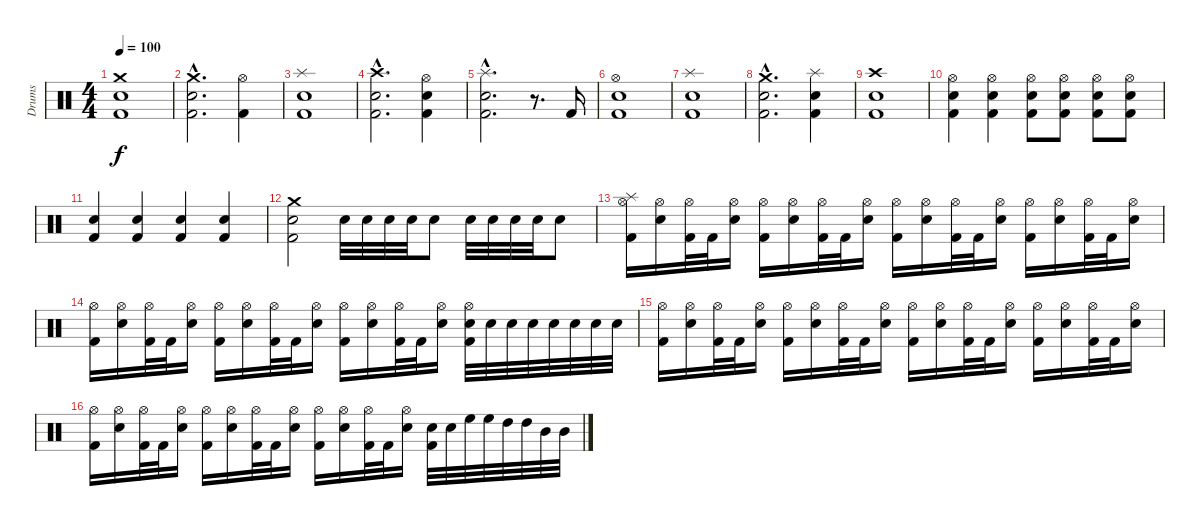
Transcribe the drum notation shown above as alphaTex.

\track ("Drums" "Drums") {instrument percussion}
\staff {score}
\articulation defaults
\ts (4 4)
\tempo 100
\clef neutral
\ks c
("Kick (hit) 2" "Electric Snare (hit)" "Crash medium (hit)").1{dy f} |
("Kick (hit) 2"{hac} "Electric Snare (hit)"{hac} "Crash medium (hit)"{hac}).2{d} ("Kick (hit) 2" "Hi-Hat (open)").4 |
("Kick (hit) 2" "Electric Snare (hit)" "Splash (hit)").1 |
("Kick (hit) 2"{hac} "Electric Snare (hit)"{hac} "Crash high (hit)"{hac}).2{d} ("Kick (hit) 2" "Electric Snare (hit)" "Hi-Hat (open)").4 |
("Kick (hit) 2"{hac} "Electric Snare (hit)"{hac} "Splash (hit)"{hac}).2{d} r.8{d} "Kick (hit) 2".16 |
("Kick (hit) 2" "Electric Snare (hit)" "Hi-Hat (open)").1 |
("Kick (hit) 2" "Electric Snare (hit)" "Splash (hit)").1 |
("Kick (hit) 2"{hac} "Electric Snare (hit)"{hac} "Crash medium (hit)"{hac}).2{d} ("Kick (hit) 2" "Electric Snare (hit)" "Splash (hit)").4 |
("Kick (hit) 2" "Electric Snare (hit)" "Crash high (hit)").1 |
("Kick (hit) 2" "Electric Snare (hit)" "Hi-Hat (open)").4 ("Kick (hit) 2" "Electric Snare (hit)" "Hi-Hat (open)").4 ("Kick (hit) 2" "Electric Snare (hit)" "Hi-Hat (open)").8 ("Kick (hit) 2" "Electric Snare (hit)" "Hi-Hat (open)").8 ("Kick (hit) 2" "Electric Snare (hit)" "Hi-Hat (open)").8 ("Kick (hit) 2" "Electric Snare (hit)" "Hi-Hat (open)").8 |
("Kick (hit) 2" "Electric Snare (hit)").4 ("Kick (hit) 2" "Electric Snare (hit)").4 ("Kick (hit) 2" "Electric Snare (hit)").4 ("Kick (hit) 2" "Electric Snare (hit)").4 |
("Kick (hit) 2" "Electric Snare (hit)" "Crash medium (hit)").2 "Electric Snare (hit)".32 "Electric Snare (hit)".32 "Electric Snare (hit)".32 "Electric Snare (hit)".32 "Electric Snare (hit)".8 "Electric Snare (hit)".32 "Electric Snare (hit)".32 "Electric Snare (hit)".32 "Electric Snare (hit)".32 "Electric Snare (hit)".8 |
\section ("" "")
("Kick (hit) 2" "Hi-Hat (open)" "Splash (hit)").16 ("Electric Snare (hit)" "Hi-Hat (open)").16 ("Kick (hit) 2" "Hi-Hat (open)").32 "Kick (hit) 2".32 ("Electric Snare (hit)" "Hi-Hat (open)").16 ("Kick (hit) 2" "Hi-Hat (open)").16 ("Electric Snare (hit)" "Hi-Hat (open)").16 ("Kick (hit) 2" "Hi-Hat (open)").32 "Kick (hit) 2".32 ("Electric Snare (hit)" "Hi-Hat (open)").16 ("Kick (hit) 2" "Hi-Hat (open)").16 ("Electric Snare (hit)" "Hi-Hat (open)").16 ("Kick (hit) 2" "Hi-Hat (open)").32 "Kick (hit) 2".32 ("Electric Snare (hit)" "Hi-Hat (open)").16 ("Kick (hit) 2" "Hi-Hat (open)").16 ("Electric Snare (hit)" "Hi-Hat (open)").16 ("Kick (hit) 2" "Hi-Hat (open)").32 "Kick (hit) 2".32 ("Electric Snare (hit)" "Hi-Hat (open)").16 |
("Kick (hit) 2" "Hi-Hat (open)").16 ("Electric Snare (hit)" "Hi-Hat (open)").16 ("Kick (hit) 2" "Hi-Hat (open)").32 "Kick (hit) 2".32 ("Electric Snare (hit)" "Hi-Hat (open)").16 ("Kick (hit) 2" "Hi-Hat (open)").16 ("Electric Snare (hit)" "Hi-Hat (open)").16 ("Kick (hit) 2" "Hi-Hat (open)").32 "Kick (hit) 2".32 ("Electric Snare (hit)" "Hi-Hat (open)").16 ("Kick (hit) 2" "Hi-Hat (open)").16 ("Electric Snare (hit)" "Hi-Hat (open)").16 ("Kick (hit) 2" "Hi-Hat (open)").32 "Kick (hit) 2".32 ("Electric Snare (hit)" "Hi-Hat (open)").16 ("Kick (hit) 2" "Electric Snare (hit)" "Hi-Hat (open)").32 "Electric Snare (hit)".32 "Electric Snare (hit)".32 "Electric Snare (hit)".32 "Electric Snare (hit)".32 "Electric Snare (hit)".32 "Electric Snare (hit)".32 "Electric Snare (hit)".32 |
("Kick (hit) 2" "Hi-Hat (open)").16 ("Electric Snare (hit)" "Hi-Hat (open)").16 ("Kick (hit) 2" "Hi-Hat (open)").32 "Kick (hit) 2".32 ("Electric Snare (hit)" "Hi-Hat (open)").16 ("Kick (hit) 2" "Hi-Hat (open)").16 ("Electric Snare (hit)" "Hi-Hat (open)").16 ("Kick (hit) 2" "Hi-Hat (open)").32 "Kick (hit) 2".32 ("Electric Snare (hit)" "Hi-Hat (open)").16 ("Kick (hit) 2" "Hi-Hat (open)").16 ("Electric Snare (hit)" "Hi-Hat (open)").16 ("Kick (hit) 2" "Hi-Hat (open)").32 "Kick (hit) 2".32 ("Electric Snare (hit)" "Hi-Hat (open)").16 ("Kick (hit) 2" "Hi-Hat (open)").16 ("Electric Snare (hit)" "Hi-Hat (open)").16 ("Kick (hit) 2" "Hi-Hat (open)").32 "Kick (hit) 2".32 ("Electric Snare (hit)" "Hi-Hat (open)").16 |
("Kick (hit) 2" "Hi-Hat (open)").16 ("Electric Snare (hit)" "Hi-Hat (open)").16 ("Kick (hit) 2" "Hi-Hat (open)").32 "Kick (hit) 2".32 ("Electric Snare (hit)" "Hi-Hat (open)").16 ("Kick (hit) 2" "Hi-Hat (open)").16 ("Electric Snare (hit)" "Hi-Hat (open)").16 ("Kick (hit) 2" "Hi-Hat (open)").32 "Kick (hit) 2".32 ("Electric Snare (hit)" "Hi-Hat (open)").16 ("Kick (hit) 2" "Hi-Hat (open)").16 ("Electric Snare (hit)" "Hi-Hat (open)").16 ("Kick (hit) 2" "Hi-Hat (open)").32 "Kick (hit) 2".32 ("Electric Snare (hit)" "Hi-Hat (open)").16 ("Kick (hit) 2" "Electric Snare (hit)").32 "Electric Snare (hit)".32 "High Floor Tom (hit)".32 "High Floor Tom (hit)".32 "High Tom (hit)".32 "High Tom (hit)".32 "Mid Tom (hit)".32 "Mid Tom (hit)".32
